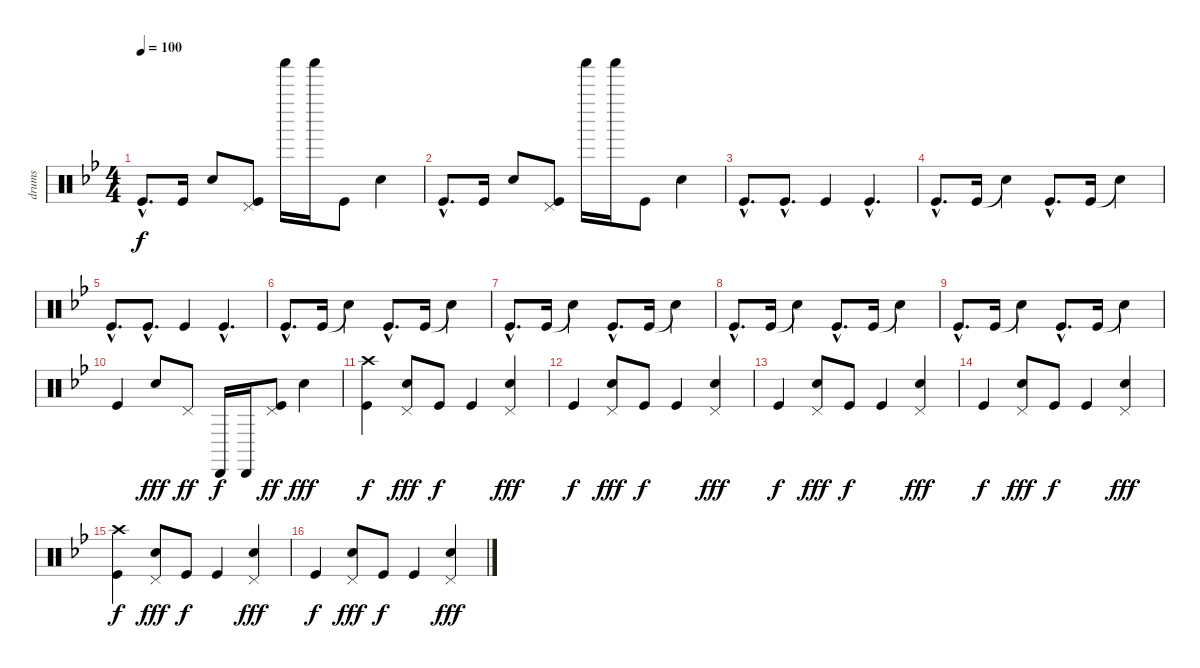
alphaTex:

\track ("drums" "drums") {instrument percussion}
\staff {score}
\articulation defaults
\ts (4 4)
\tempo 100
\clef neutral
\ks gminor "Kick (hit)"{hac}.8{d dy f} "Kick (hit)".16 "Electric Snare (hit)".8
("Pedal Hi-Hat (hit)" "Kick (hit)").8 "Shaker (hit)".16 "Shaker (hit)".16 "Kick (hit)".8 "Electric Snare (hit)".4 |
"Kick (hit)"{hac}.8{d} "Kick (hit)".16 "Electric Snare (hit)".8 ("Pedal Hi-Hat (hit)" "Kick (hit)").8 "Shaker (hit)".16 "Shaker (hit)".16 "Kick (hit)".8 "Electric Snare (hit)".4 |
"Kick (hit)"{hac}.8{d} "Kick (hit)"{hac}.8{d} "Kick (hit)".4 "Kick (hit)"{hac}.4{d} |
"Kick (hit)"{hac}.8{d} "Kick (hit)".16 "Snare (hit)"{t}.4 "Kick (hit)"{hac}.8{d} "Kick (hit)".16 "Snare (hit)"{t}.4 |
"Kick (hit)"{hac}.8{d} "Kick (hit)"{hac}.8{d} "Kick (hit)".4 "Kick (hit)"{hac}.4{d} |
"Kick (hit)"{hac}.8{d} "Kick (hit)".16 "Snare (hit)"{t}.4 "Kick (hit)"{hac}.8{d} "Kick (hit)".16 "Snare (hit)"{t}.4 |
"Kick (hit)"{hac}.8{d} "Kick (hit)".16 "Snare (hit)"{t}.4 "Kick (hit)"{hac}.8{d} "Kick (hit)".16 "Snare (hit)"{t}.4 |
"Kick (hit)"{hac}.8{d} "Kick (hit)".16 "Snare (hit)"{t}.4 "Kick (hit)"{hac}.8{d} "Kick (hit)".16 "Snare (hit)"{t}.4 |
"Kick (hit)"{hac}.8{d} "Kick (hit)".16 "Snare (hit)"{t}.4 "Kick (hit)"{hac}.8{d} "Kick (hit)".16 "Snare (hit)"{t}.4 |
"Kick (hit)".4 "Electric Snare (hit)".8{dy fff} "Pedal Hi-Hat (hit)".8{dy ff} "Cabasa (hit)".16{dy f} "Cabasa (hit)".16 ("Pedal Hi-Hat (hit)" "Kick (hit)").8{dy ff} "Electric Snare (hit)".4{dy fff} |
("Crash high (hit)" "Kick (hit)").4{dy f} ("Pedal Hi-Hat (hit)" "Electric Snare (hit)").8{dy fff} "Kick (hit)".8{dy f} "Kick (hit)".4 ("Pedal Hi-Hat (hit)" "Electric Snare (hit)").4{dy fff} |
"Kick (hit)".4{dy f} ("Pedal Hi-Hat (hit)" "Electric Snare (hit)").8{dy fff} "Kick (hit)".8{dy f} "Kick (hit)".4 ("Pedal Hi-Hat (hit)" "Electric Snare (hit)").4{dy fff} |
"Kick (hit)".4{dy f} ("Pedal Hi-Hat (hit)" "Electric Snare (hit)").8{dy fff} "Kick (hit)".8{dy f} "Kick (hit)".4 ("Pedal Hi-Hat (hit)" "Electric Snare (hit)").4{dy fff} |
"Kick (hit)".4{dy f} ("Pedal Hi-Hat (hit)" "Electric Snare (hit)").8{dy fff} "Kick (hit)".8{dy f} "Kick (hit)".4 ("Pedal Hi-Hat (hit)" "Electric Snare (hit)").4{dy fff} |
("Crash high (hit)" "Kick (hit)").4{dy f} ("Pedal Hi-Hat (hit)" "Electric Snare (hit)").8{dy fff} "Kick (hit)".8{dy f} "Kick (hit)".4 ("Pedal Hi-Hat (hit)" "Electric Snare (hit)").4{dy fff} |
"Kick (hit)".4{dy f} ("Pedal Hi-Hat (hit)" "Electric Snare (hit)").8{dy fff} "Kick (hit)".8{dy f} "Kick (hit)".4 ("Pedal Hi-Hat (hit)" "Electric Snare (hit)").4{dy fff}
